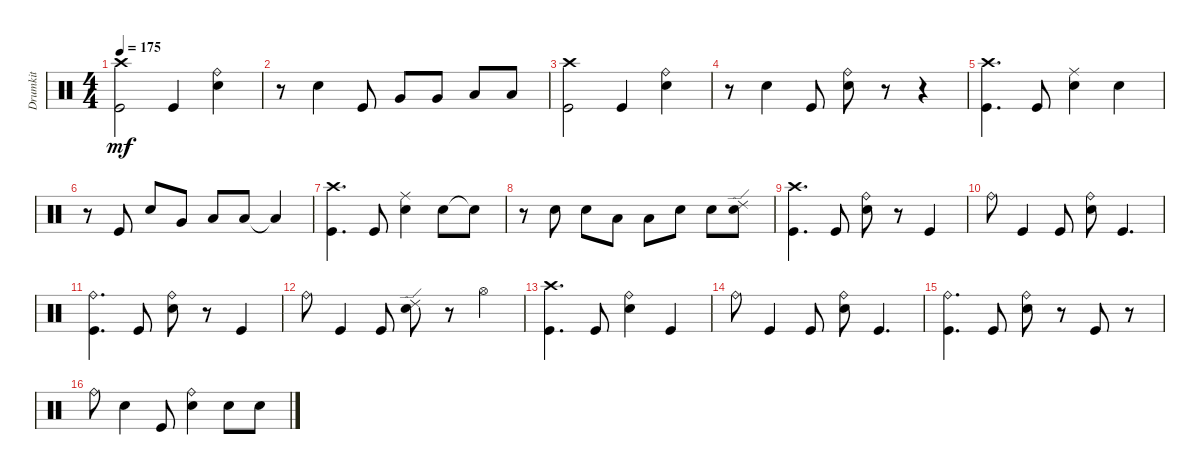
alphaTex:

\track ("Drumkit" "Drumkit") {instrument percussion}
\staff {score}
\articulation defaults
\ts (4 4)
\tempo 175
\clef neutral
\ks c
("Kick (hit)" "Crash high (hit)").2{dy mf} "Kick (hit)".4 ("Snare (hit) 2" "Ride (bell)").4 |
r.8 "Snare (hit) 2".4 "Kick (hit)".8 "Very Low Tom (hit)".8 "Very Low Tom (hit)".8 "Low Tom (hit)".8 "Low Tom (hit)".8 |
("Kick (hit)" "Crash high (hit)").2 "Kick (hit)".4 ("Snare (hit) 2" "Ride (bell)").4 |
r.8 "Snare (hit) 2".4 "Kick (hit)".8 ("Snare (hit) 2" "Ride (bell)").8 r.8 r.4 |
("Kick (hit)" "Crash high (hit)").4{d} "Kick (hit)".8 ("Snare (hit) 2" "Ride (middle)").4 "Snare (hit) 2".4 |
r.8 "Kick (hit)".8 "Snare (hit) 2".8 "Very Low Tom (hit)".8 "Low Tom (hit)".8 "Low Tom (hit)".8 "Low Tom (hit)"{t}.4 |
("Kick (hit)" "Crash high (hit)").4{d} "Kick (hit)".8 ("Snare (hit) 2" "Ride (middle)").4 "Snare (hit) 2".8 "Snare (hit) 2"{t}.8 |
r.8 "Snare (hit) 2".8 "Snare (hit) 2".8 "Low Tom (hit)".8 "Low Tom (hit)".8 "Snare (hit) 2".8 "Snare (hit) 2".8 ("Snare (hit) 2" "Ride (edge) 2").8 |
("Kick (hit)" "Crash high (hit)").4{d} "Kick (hit)".8 ("Snare (hit) 2" "Ride (bell)").8 r.8 "Kick (hit)".4 |
"Ride (bell)".8 "Kick (hit)".4 "Kick (hit)".8 ("Snare (hit) 2" "Ride (bell)").8 "Kick (hit)".4{d} |
("Kick (hit)" "Ride (bell)").4{d} "Kick (hit)".8 ("Snare (hit) 2" "Ride (bell)").8 r.8 "Kick (hit)".4 |
"Ride (bell)".8 "Kick (hit)".4 "Kick (hit)".8 ("Snare (hit) 2" "Ride (edge) 2").8 r.8 "Hi-Hat (open)".4 |
("Kick (hit)" "Crash high (hit)").4{d} "Kick (hit)".8 ("Snare (hit) 2" "Ride (bell)").4 "Kick (hit)".4 |
"Ride (bell)".8 "Kick (hit)".4 "Kick (hit)".8 ("Snare (hit) 2" "Ride (bell)").8 "Kick (hit)".4{d} |
("Kick (hit)" "Ride (bell)").4{d} "Kick (hit)".8 ("Snare (hit) 2" "Ride (bell)").8 r.8 "Kick (hit)".8 r.8 |
"Ride (bell)".8 "Snare (hit) 2".4 "Kick (hit)".8 ("Snare (hit) 2" "Ride (bell)").4 "Snare (hit) 2".8 "Snare (hit) 2".8
